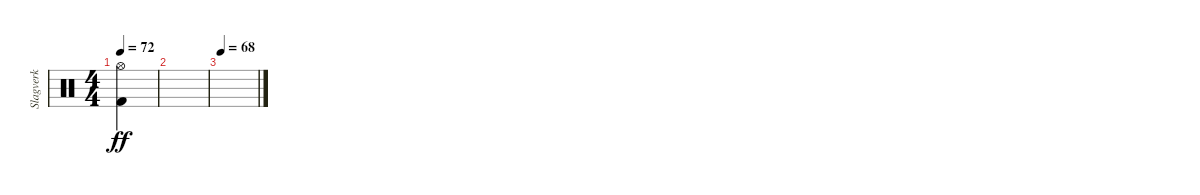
\track ("Slagverk" "Slagverk") {instrument percussion}
\staff {score}
\articulation defaults
\ts (4 4)
\tempo 72
\clef neutral
\ks c
("Hi-Hat (open)" "Kick (hit) 2").4{dy ff} |
|
\tempo 68
